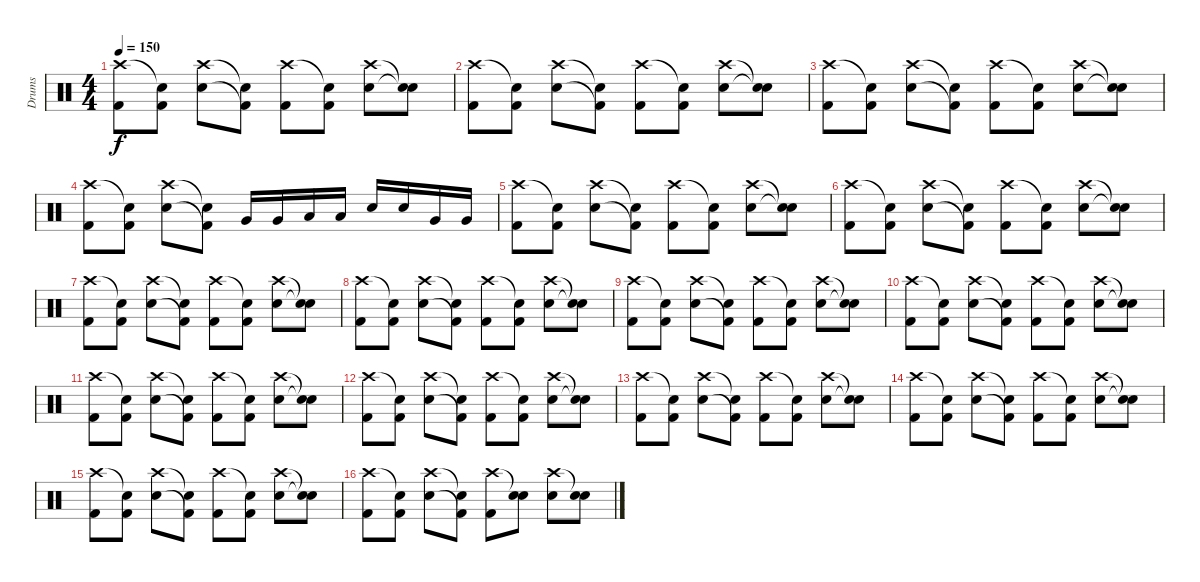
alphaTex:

\track ("Drums" "Drums") {instrument percussion bank 127}
\staff {score}
\articulation defaults
\ts (4 4)
\tempo 150
\clef neutral
\ks c
("Crash high (hit)" "Kick (hit) 2").8{dy f} ("Snare (hit)"{t} "Kick (hit) 2").8 ("Crash high (hit)" "Electric Snare (hit)").8 ("Snare (hit)"{t} "Kick (hit) 2"{t}).8 ("Crash high (hit)" "Kick (hit) 2").8 ("Snare (hit)"{t} "Kick (hit) 2").8 ("Crash high (hit)" "Electric Snare (hit)").8 ("Snare (hit)"{t} "Snare (hit)"{t}).8 |
("Crash high (hit)" "Kick (hit) 2").8 ("Snare (hit)"{t} "Kick (hit) 2").8 ("Crash high (hit)" "Electric Snare (hit)").8 ("Snare (hit)"{t} "Kick (hit) 2"{t}).8 ("Crash high (hit)" "Kick (hit) 2").8 ("Snare (hit)"{t} "Kick (hit) 2").8 ("Crash high (hit)" "Electric Snare (hit)").8 ("Snare (hit)"{t} "Snare (hit)"{t}).8 |
("Crash high (hit)" "Kick (hit) 2").8 ("Snare (hit)"{t} "Kick (hit) 2").8 ("Crash high (hit)" "Electric Snare (hit)").8 ("Snare (hit)"{t} "Kick (hit) 2"{t}).8 ("Crash high (hit)" "Kick (hit) 2").8 ("Snare (hit)"{t} "Kick (hit) 2").8 ("Crash high (hit)" "Electric Snare (hit)").8 ("Snare (hit)"{t} "Snare (hit)"{t}).8 |
("Crash high (hit)" "Kick (hit) 2").8 ("Snare (hit)"{t} "Kick (hit) 2").8 ("Crash high (hit)" "Electric Snare (hit)").8 ("Snare (hit)"{t} "Kick (hit) 2"{t}).8 "Very Low Tom (hit)".16 "Very Low Tom (hit)".16 "Low Tom (hit)".16 "Low Tom (hit)".16 "Electric Snare (hit)".16 "Electric Snare (hit)".16 "Very Low Tom (hit)".16 "Very Low Tom (hit)".16 |
("Crash high (hit)" "Kick (hit) 2").8 ("Snare (hit)"{t} "Kick (hit) 2").8 ("Crash high (hit)" "Electric Snare (hit)").8 ("Snare (hit)"{t} "Kick (hit) 2"{t}).8 ("Crash high (hit)" "Kick (hit) 2").8 ("Snare (hit)"{t} "Kick (hit) 2").8 ("Crash high (hit)" "Electric Snare (hit)").8 ("Snare (hit)"{t} "Snare (hit)"{t}).8 |
("Crash high (hit)" "Kick (hit) 2").8 ("Snare (hit)"{t} "Kick (hit) 2").8 ("Crash high (hit)" "Electric Snare (hit)").8 ("Snare (hit)"{t} "Kick (hit) 2"{t}).8 ("Crash high (hit)" "Kick (hit) 2").8 ("Snare (hit)"{t} "Kick (hit) 2").8 ("Crash high (hit)" "Electric Snare (hit)").8 ("Snare (hit)"{t} "Snare (hit)"{t}).8 |
("Crash high (hit)" "Kick (hit) 2").8 ("Snare (hit)"{t} "Kick (hit) 2").8 ("Crash high (hit)" "Electric Snare (hit)").8 ("Snare (hit)"{t} "Kick (hit) 2"{t}).8 ("Crash high (hit)" "Kick (hit) 2").8 ("Snare (hit)"{t} "Kick (hit) 2").8 ("Crash high (hit)" "Electric Snare (hit)").8 ("Snare (hit)"{t} "Snare (hit)"{t}).8 |
("Crash high (hit)" "Kick (hit) 2").8 ("Snare (hit)"{t} "Kick (hit) 2").8 ("Crash high (hit)" "Electric Snare (hit)").8 ("Snare (hit)"{t} "Kick (hit) 2"{t}).8 ("Crash high (hit)" "Kick (hit) 2").8 ("Snare (hit)"{t} "Kick (hit) 2").8 ("Crash high (hit)" "Electric Snare (hit)").8 ("Snare (hit)"{t} "Snare (hit)"{t}).8 |
("Crash high (hit)" "Kick (hit) 2").8 ("Snare (hit)"{t} "Kick (hit) 2").8 ("Crash high (hit)" "Electric Snare (hit)").8 ("Snare (hit)"{t} "Kick (hit) 2"{t}).8 ("Crash high (hit)" "Kick (hit) 2").8 ("Snare (hit)"{t} "Kick (hit) 2").8 ("Crash high (hit)" "Electric Snare (hit)").8 ("Snare (hit)"{t} "Snare (hit)"{t}).8 |
("Crash high (hit)" "Kick (hit) 2").8 ("Snare (hit)"{t} "Kick (hit) 2").8 ("Crash high (hit)" "Electric Snare (hit)").8 ("Snare (hit)"{t} "Kick (hit) 2"{t}).8 ("Crash high (hit)" "Kick (hit) 2").8 ("Snare (hit)"{t} "Kick (hit) 2").8 ("Crash high (hit)" "Electric Snare (hit)").8 ("Snare (hit)"{t} "Snare (hit)"{t}).8 |
("Crash high (hit)" "Kick (hit) 2").8 ("Snare (hit)"{t} "Kick (hit) 2").8 ("Crash high (hit)" "Electric Snare (hit)").8 ("Snare (hit)"{t} "Kick (hit) 2"{t}).8 ("Crash high (hit)" "Kick (hit) 2").8 ("Snare (hit)"{t} "Kick (hit) 2").8 ("Crash high (hit)" "Electric Snare (hit)").8 ("Snare (hit)"{t} "Snare (hit)"{t}).8 |
("Crash high (hit)" "Kick (hit) 2").8 ("Snare (hit)"{t} "Kick (hit) 2").8 ("Crash high (hit)" "Electric Snare (hit)").8 ("Snare (hit)"{t} "Kick (hit) 2"{t}).8 ("Crash high (hit)" "Kick (hit) 2").8 ("Snare (hit)"{t} "Kick (hit) 2").8 ("Crash high (hit)" "Electric Snare (hit)").8 ("Snare (hit)"{t} "Snare (hit)"{t}).8 |
("Crash high (hit)" "Kick (hit) 2").8 ("Snare (hit)"{t} "Kick (hit) 2").8 ("Crash high (hit)" "Electric Snare (hit)").8 ("Snare (hit)"{t} "Kick (hit) 2"{t}).8 ("Crash high (hit)" "Kick (hit) 2").8 ("Snare (hit)"{t} "Kick (hit) 2").8 ("Crash high (hit)" "Electric Snare (hit)").8 ("Snare (hit)"{t} "Snare (hit)"{t}).8 |
("Crash high (hit)" "Kick (hit) 2").8 ("Snare (hit)"{t} "Kick (hit) 2").8 ("Crash high (hit)" "Electric Snare (hit)").8 ("Snare (hit)"{t} "Kick (hit) 2"{t}).8 ("Crash high (hit)" "Kick (hit) 2").8 ("Snare (hit)"{t} "Kick (hit) 2").8 ("Crash high (hit)" "Electric Snare (hit)").8 ("Snare (hit)"{t} "Snare (hit)"{t}).8 |
("Crash high (hit)" "Kick (hit) 2").8 ("Snare (hit)"{t} "Kick (hit) 2").8 ("Crash high (hit)" "Electric Snare (hit)").8 ("Snare (hit)"{t} "Kick (hit) 2"{t}).8 ("Crash high (hit)" "Kick (hit) 2").8 ("Snare (hit)"{t} "Kick (hit) 2").8 ("Crash high (hit)" "Electric Snare (hit)").8 ("Snare (hit)"{t} "Snare (hit)"{t}).8 |
("Crash high (hit)" "Kick (hit) 2").8 ("Snare (hit)"{t} "Kick (hit) 2").8 ("Crash high (hit)" "Electric Snare (hit)").8 ("Snare (hit)"{t} "Kick (hit) 2"{t}).8 ("Crash high (hit)" "Kick (hit) 2").8 ("Snare (hit)"{t} "Electric Snare (hit)").8 ("Crash high (hit)" "Electric Snare (hit)").8 ("Snare (hit)"{t} "Electric Snare (hit)").8
